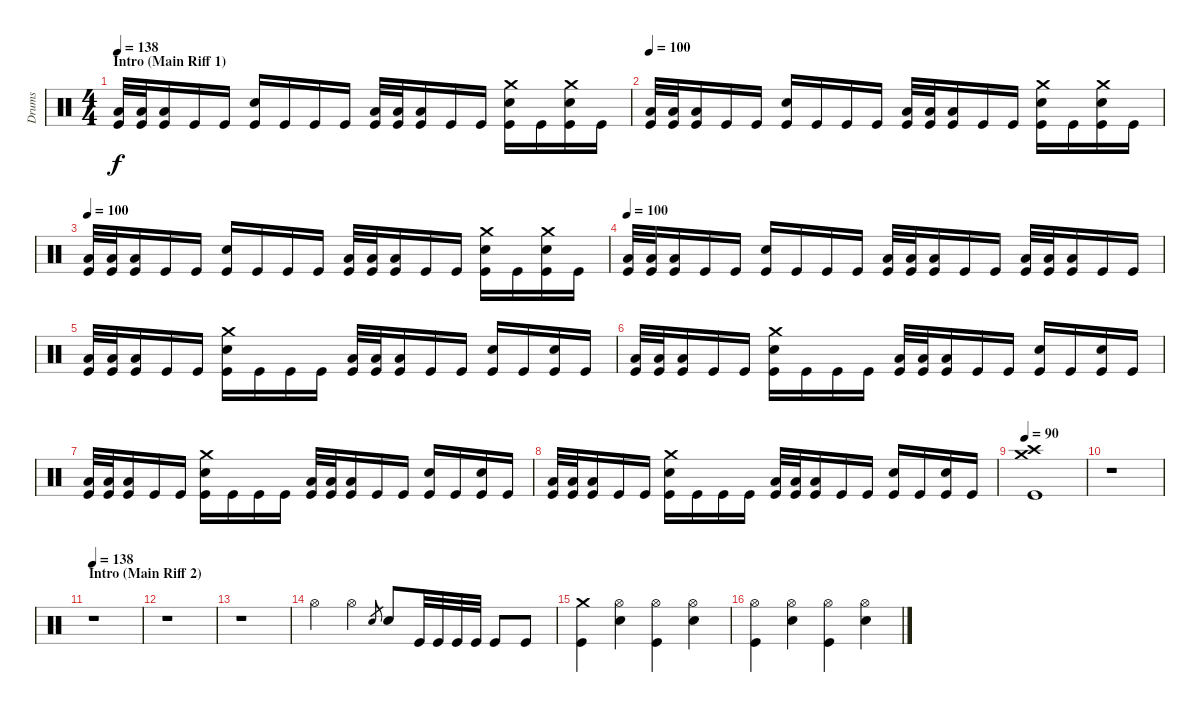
\track ("Drums" "Drums") {instrument percussion}
\staff {score}
\articulation defaults
\ts (4 4)
\section ("" "Intro (Main Riff 1)")
\tempo 138
\tempo 100
\tempo 138
\clef neutral
\ks c
("Low Tom (hit)" "Kick (hit)").32{dy f} ("Low Tom (hit)" "Kick (hit)").32 ("Low Tom (hit)" "Kick (hit)").16 "Kick (hit)".16 "Kick (hit)".16 ("Electric Snare (hit)" "Kick (hit)").16 "Kick (hit)".16 "Kick (hit)".16 "Kick (hit)".16 ("Low Tom (hit)" "Kick (hit)").32 ("Low Tom (hit)" "Kick (hit)").32 ("Low Tom (hit)" "Kick (hit)").16 "Kick (hit)".16 "Kick (hit)".16 ("Crash medium (hit)" "Electric Snare (hit)" "Kick (hit)").16 "Kick (hit)".16 ("Crash medium (hit)" "Electric Snare (hit)" "Kick (hit)").16 "Kick (hit)".16 |
\tempo 100
("Low Tom (hit)" "Kick (hit)").32 ("Low Tom (hit)" "Kick (hit)").32 ("Low Tom (hit)" "Kick (hit)").16 "Kick (hit)".16 "Kick (hit)".16 ("Electric Snare (hit)" "Kick (hit)").16 "Kick (hit)".16 "Kick (hit)".16 "Kick (hit)".16 ("Low Tom (hit)" "Kick (hit)").32 ("Low Tom (hit)" "Kick (hit)").32 ("Low Tom (hit)" "Kick (hit)").16 "Kick (hit)".16 "Kick (hit)".16 ("Crash medium (hit)" "Electric Snare (hit)" "Kick (hit)").16 "Kick (hit)".16 ("Crash medium (hit)" "Electric Snare (hit)" "Kick (hit)").16 "Kick (hit)".16 |
\tempo 100
("Low Tom (hit)" "Kick (hit)").32 ("Low Tom (hit)" "Kick (hit)").32 ("Low Tom (hit)" "Kick (hit)").16 "Kick (hit)".16 "Kick (hit)".16 ("Electric Snare (hit)" "Kick (hit)").16 "Kick (hit)".16 "Kick (hit)".16 "Kick (hit)".16 ("Low Tom (hit)" "Kick (hit)").32 ("Low Tom (hit)" "Kick (hit)").32 ("Low Tom (hit)" "Kick (hit)").16 "Kick (hit)".16 "Kick (hit)".16 ("Crash medium (hit)" "Electric Snare (hit)" "Kick (hit)").16 "Kick (hit)".16 ("Crash medium (hit)" "Electric Snare (hit)" "Kick (hit)").16 "Kick (hit)".16 |
\tempo 100
("Low Tom (hit)" "Kick (hit)").32 ("Low Tom (hit)" "Kick (hit)").32 ("Low Tom (hit)" "Kick (hit)").16 "Kick (hit)".16 "Kick (hit)".16 ("Electric Snare (hit)" "Kick (hit)").16 "Kick (hit)".16 "Kick (hit)".16 "Kick (hit)".16 ("Low Tom (hit)" "Kick (hit)").32 ("Low Tom (hit)" "Kick (hit)").32 ("Low Tom (hit)" "Kick (hit)").16 "Kick (hit)".16 "Kick (hit)".16 ("Low Tom (hit)" "Kick (hit)").32 ("Low Tom (hit)" "Kick (hit)").32 ("Low Tom (hit)" "Kick (hit)").16 "Kick (hit)".16 "Kick (hit)".16 |
("Low Tom (hit)" "Kick (hit)").32 ("Low Tom (hit)" "Kick (hit)").32 ("Low Tom (hit)" "Kick (hit)").16 "Kick (hit)".16 "Kick (hit)".16 ("Crash medium (hit)" "Electric Snare (hit)" "Kick (hit)").16 "Kick (hit)".16 "Kick (hit)".16 "Kick (hit)".16 ("Low Tom (hit)" "Kick (hit)").32 ("Low Tom (hit)" "Kick (hit)").32 ("Low Tom (hit)" "Kick (hit)").16 "Kick (hit)".16 "Kick (hit)".16 ("Electric Snare (hit)" "Kick (hit)").16 "Kick (hit)".16 ("Electric Snare (hit)" "Kick (hit)").16 "Kick (hit)".16 |
("Low Tom (hit)" "Kick (hit)").32 ("Low Tom (hit)" "Kick (hit)").32 ("Low Tom (hit)" "Kick (hit)").16 "Kick (hit)".16 "Kick (hit)".16 ("Crash medium (hit)" "Electric Snare (hit)" "Kick (hit)").16 "Kick (hit)".16 "Kick (hit)".16 "Kick (hit)".16 ("Low Tom (hit)" "Kick (hit)").32 ("Low Tom (hit)" "Kick (hit)").32 ("Low Tom (hit)" "Kick (hit)").16 "Kick (hit)".16 "Kick (hit)".16 ("Electric Snare (hit)" "Kick (hit)").16 "Kick (hit)".16 ("Electric Snare (hit)" "Kick (hit)").16 "Kick (hit)".16 |
("Low Tom (hit)" "Kick (hit)").32 ("Low Tom (hit)" "Kick (hit)").32 ("Low Tom (hit)" "Kick (hit)").16 "Kick (hit)".16 "Kick (hit)".16 ("Crash medium (hit)" "Electric Snare (hit)" "Kick (hit)").16 "Kick (hit)".16 "Kick (hit)".16 "Kick (hit)".16 ("Low Tom (hit)" "Kick (hit)").32 ("Low Tom (hit)" "Kick (hit)").32 ("Low Tom (hit)" "Kick (hit)").16 "Kick (hit)".16 "Kick (hit)".16 ("Electric Snare (hit)" "Kick (hit)").16 "Kick (hit)".16 ("Electric Snare (hit)" "Kick (hit)").16 "Kick (hit)".16 |
("Low Tom (hit)" "Kick (hit)").32 ("Low Tom (hit)" "Kick (hit)").32 ("Low Tom (hit)" "Kick (hit)").16 "Kick (hit)".16 "Kick (hit)".16 ("Crash medium (hit)" "Electric Snare (hit)" "Kick (hit)").16 "Kick (hit)".16 "Kick (hit)".16 "Kick (hit)".16 ("Low Tom (hit)" "Kick (hit)").32 ("Low Tom (hit)" "Kick (hit)").32 ("Low Tom (hit)" "Kick (hit)").16 "Kick (hit)".16 "Kick (hit)".16 ("Electric Snare (hit)" "Kick (hit)").16 "Kick (hit)".16 ("Electric Snare (hit)" "Kick (hit)").16 "Kick (hit)".16 |
\tempo 90
("Crash medium (hit)" "Crash high (hit)" "Kick (hit)").1 |
r.1 |
\section ("" "Intro (Main Riff 2)")
\tempo 138
r.1 |
r.1 |
r.1 |
"Hi-Hat (open)".4 "Hi-Hat (open)".4 "Electric Snare (hit)".8{gr} "Electric Snare (hit)".8 "Kick (hit)".32 "Kick (hit)".32 "Kick (hit)".32 "Kick (hit)".32 "Kick (hit)".8 "Kick (hit)".8 |
("Crash medium (hit)" "Kick (hit)").4 ("Hi-Hat (open)" "Electric Snare (hit)").4 ("Hi-Hat (open)" "Kick (hit)").4 ("Hi-Hat (open)" "Electric Snare (hit)").4 |
("Hi-Hat (open)" "Kick (hit)").4 ("Hi-Hat (open)" "Electric Snare (hit)").4 ("Hi-Hat (open)" "Kick (hit)").4 ("Hi-Hat (open)" "Electric Snare (hit)").4
